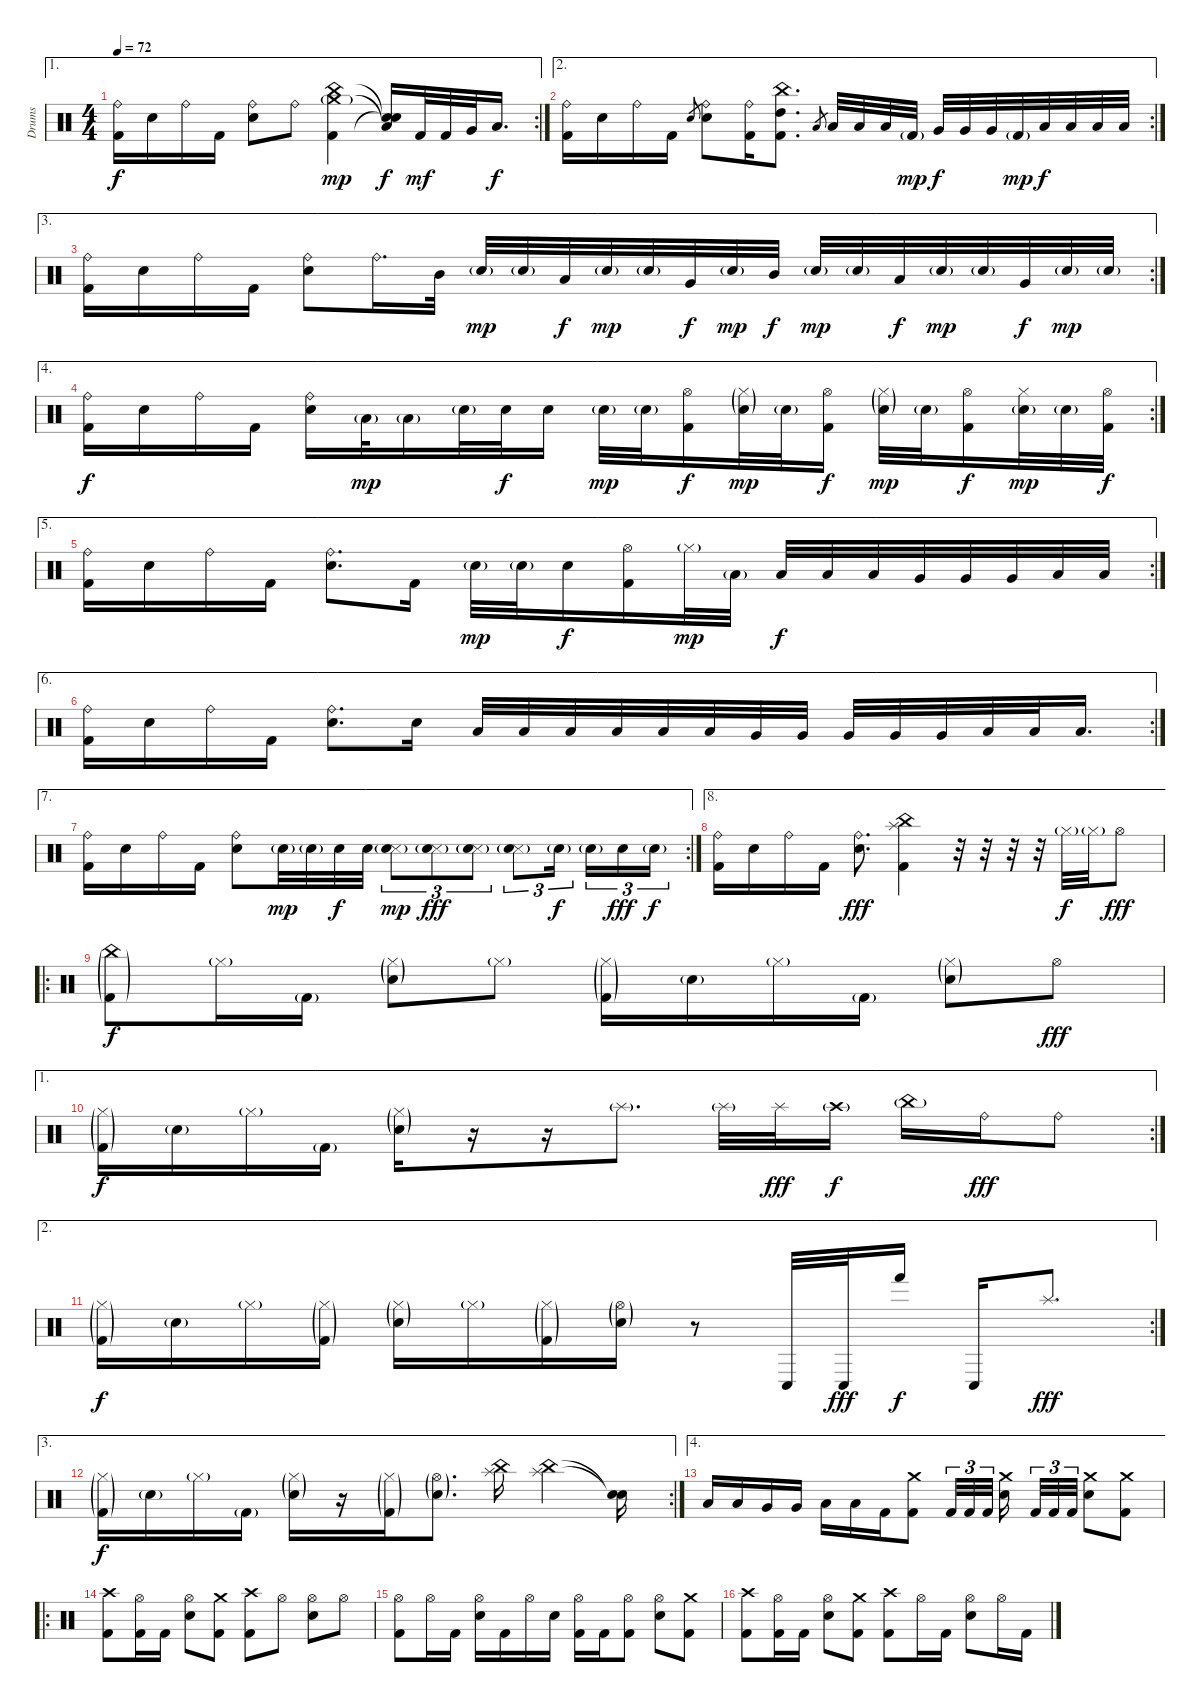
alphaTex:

\track ("Drums" "Drums") {instrument percussion}
\staff {score}
\articulation defaults
\ae 1
\rc 2
\ts (4 4)
\tempo 72
\clef neutral
\ks c
("Ride (bell)" "Kick (hit) 2").16{dy f} "Electric Snare (hit)".16 "Ride (bell)".16 "Kick (hit) 2".16 ("Ride (bell)" "Electric Snare (hit)").8 "Ride (bell)".8 ("China (hit)" "Crash medium (hit)"{g} "Kick (hit) 2").4{dy mp} ("Snare (hit)"{t} "Low Floor Tom (hit)"{t} "Snare (hit)"{t}).16{dy f} "Kick (hit) 2".32{dy mf} "Kick (hit) 2".32 "Very Low Tom (hit)".32 "Low Floor Tom (hit)".16{d dy f} |
\ae 2
\rc 2
("Ride (bell)" "Kick (hit) 2").16 "Electric Snare (hit)".16 "Ride (bell)".16 "Kick (hit) 2".16 "Electric Snare (hit)".8{gr} ("Ride (bell)" "Electric Snare (hit)").8 ("Ride (bell)" "Kick (hit) 2").16 ("China (hit)" "High Tom (hit)" "Kick (hit) 2").8{d} "Low Tom (hit)".8{gr} "Low Tom (hit)".32 "Low Tom (hit)".32 "Low Tom (hit)".32 "Kick (hit) 2"{g}.32{dy mp} "Very Low Tom (hit)".32{dy f} "Very Low Tom (hit)".32 "Very Low Tom (hit)".32 "Kick (hit) 2"{g}.32{dy mp} "Low Floor Tom (hit)".32{dy f} "Low Floor Tom (hit)".32 "Low Floor Tom (hit)".32 "Low Floor Tom (hit)".32 |
\ae 3
\rc 2
("Ride (bell)" "Kick (hit) 2").16 "Electric Snare (hit)".16 "Ride (bell)".16 "Kick (hit) 2".16 ("Ride (bell)" "Electric Snare (hit)").8 "Ride (bell)".16{d} "Mid Tom (hit)".32 "Electric Snare (hit)"{g}.32{dy mp} "Electric Snare (hit)"{g}.32 "Low Tom (hit)".32{dy f} "Electric Snare (hit)"{g}.32{dy mp} "Electric Snare (hit)"{g}.32 "Very Low Tom (hit)".32{dy f} "Electric Snare (hit)"{g}.32{dy mp} "Mid Tom (hit)".32{dy f} "Electric Snare (hit)"{g}.32{dy mp} "Electric Snare (hit)"{g}.32 "Low Tom (hit)".32{dy f} "Electric Snare (hit)"{g}.32{dy mp} "Electric Snare (hit)"{g}.32 "Very Low Tom (hit)".32{dy f} "Electric Snare (hit)"{g}.32{dy mp} "Electric Snare (hit)"{g}.32 |
\ae 4
\rc 2
("Ride (bell)" "Kick (hit) 2").16{dy f} "Electric Snare (hit)".16 "Ride (bell)".16 "Kick (hit) 2".16 ("Ride (bell)" "Electric Snare (hit)").16 "Low Tom (hit)"{g}.32{dy mp} "Low Tom (hit)"{g}.16 "Electric Snare (hit)"{g}.32 "Electric Snare (hit)".32{dy f} "Electric Snare (hit)".16 "Electric Snare (hit)"{g}.32{dy mp} "Electric Snare (hit)"{g}.32 ("Hi-Hat (open)" "Kick (hit) 2").16{dy f} ("Hi-Hat (closed)"{g} "Electric Snare (hit)"{g}).32{dy mp} "Electric Snare (hit)"{g}.32 ("Hi-Hat (open)" "Kick (hit) 2").16{dy f} ("Hi-Hat (closed)"{g} "Electric Snare (hit)"{g}).32{dy mp} "Electric Snare (hit)"{g}.32 ("Hi-Hat (open)" "Kick (hit) 2").16{dy f} ("Hi-Hat (closed)" "Electric Snare (hit)"{g}).32{dy mp} "Electric Snare (hit)"{g}.32 ("Hi-Hat (open)" "Kick (hit) 2").32{dy f} |
\ae 5
\rc 2
("Ride (bell)" "Kick (hit) 2").16 "Electric Snare (hit)".16 "Ride (bell)".16 "Kick (hit) 2".16 ("Ride (bell)" "Electric Snare (hit)").8{d} "Kick (hit) 2".16 "Electric Snare (hit)"{g}.32{dy mp} "Electric Snare (hit)"{g}.32 "Electric Snare (hit)".16{dy f} ("Hi-Hat (open)" "Kick (hit) 2").16 "Hi-Hat (closed)"{g}.32{dy mp} "Low Tom (hit)"{g}.32 "Low Tom (hit)".32{dy f} "Low Tom (hit)".32 "Low Tom (hit)".32 "Very Low Tom (hit)".32 "Very Low Tom (hit)".32 "Very Low Tom (hit)".32 "Low Floor Tom (hit)".32 "Low Floor Tom (hit)".32 |
\ae 6
\rc 2
("Ride (bell)" "Kick (hit) 2").16 "Electric Snare (hit)".16 "Ride (bell)".16 "Kick (hit) 2".16 ("Ride (bell)" "Electric Snare (hit)").8{d} "Electric Snare (hit)".16 "Low Tom (hit)".32 "Low Tom (hit)".32 "Low Tom (hit)".32 "Low Tom (hit)".32 "Low Tom (hit)".32 "Low Tom (hit)".32 "Very Low Tom (hit)".32 "Very Low Tom (hit)".32 "Very Low Tom (hit)".32 "Very Low Tom (hit)".32 "Very Low Tom (hit)".32 "Low Floor Tom (hit)".32 "Low Floor Tom (hit)".32 "Low Floor Tom (hit)".16{d} |
\ae 7
\rc 2
("Ride (bell)" "Kick (hit) 2").16 "Electric Snare (hit)".16 "Ride (bell)".16 "Kick (hit) 2".16 ("Ride (bell)" "Electric Snare (hit)").8 "Electric Snare (hit)"{g}.32{dy mp} "Electric Snare (hit)"{g}.32 "Electric Snare (hit)".32{dy f} "Electric Snare (hit)".32 ("Snare (side stick) 3" "Electric Snare (hit)"{g}).8{tu (3 2) dy mp} ("Snare (side stick) 3" "Electric Snare (hit)"{g}).8{tu (3 2) dy fff} ("Snare (side stick) 3" "Electric Snare (hit)"{g}).8{tu (3 2)} ("Snare (side stick) 3" "Electric Snare (hit)"{g}).8{tu (3 2)} "Electric Snare (hit)"{g}.16{tu (3 2) dy f beam splitsecondary} "Electric Snare (hit)"{g}.16{tu (3 2)} "Electric Snare (hit)".16{tu (3 2) dy fff} "Electric Snare (hit)"{g}.16{tu (3 2) dy f} |
\ae 8
("Ride (bell)" "Kick (hit) 2").16 "Electric Snare (hit)".16 "Ride (bell)".16 "Kick (hit) 2".16 ("Ride (bell)" "Electric Snare (hit)").8{d dy fff} ("China (hit)" "Splash (hit)" "Kick (hit) 2").4 r.32 r.32 r.32 r.32 "Hi-Hat (closed)"{g}.32{dy f} "Hi-Hat (closed)"{g}.32 "Hi-Hat (open)".8{dy fff} |
\ro
("China (hit)"{g} "Kick (hit) 2"{g}).8{dy f} "Hi-Hat (closed)"{g}.16 "Kick (hit) 2"{g}.16 ("Hi-Hat (closed)"{g} "Electric Snare (hit)"{g}).8 "Hi-Hat (closed)"{g}.8 ("Hi-Hat (closed)"{g} "Kick (hit) 2"{g}).16 "Electric Snare (hit)"{g}.16 "Hi-Hat (closed)"{g}.16 "Kick (hit) 2"{g}.16 ("Hi-Hat (closed)"{g} "Electric Snare (hit)"{g}).8 "Hi-Hat (open)".8{dy fff} |
\ae 1
\rc 2
("Hi-Hat (closed)"{g} "Kick (hit) 2"{g}).16{dy f} "Electric Snare (hit)"{g}.16 "Hi-Hat (closed)"{g}.16 "Kick (hit) 2"{g}.16 ("Hi-Hat (closed)"{g} "Electric Snare (hit)"{g}).16 r.16 r.16 "Splash (hit)"{g}.8{d} "Splash (hit)"{g}.32 "Splash (hit)".32{dy fff} "Crash high (hit)"{g}.16{dy f} "China (hit)"{g}.16 "Ride (bell)".16{dy fff} "Ride (bell)".8 |
\ae 2
\rc 2
("Hi-Hat (closed)"{g} "Kick (hit) 2"{g}).16{dy f} "Electric Snare (hit)"{g}.16 "Hi-Hat (closed)"{g}.16 ("Hi-Hat (closed)"{g} "Kick (hit) 2"{g}).16 ("Hi-Hat (closed)"{g} "Electric Snare (hit)"{g}).16 "Hi-Hat (closed)"{g}.16 ("Hi-Hat (closed)"{g} "Kick (hit) 2"{g}).16 ("Hi-Hat (open)"{g} "Electric Snare (hit)"{g}).16 r.8 "Conga low (hit)".32 "Conga low (hit)".32{dy fff} "Hand (hit)".16{dy f} "Conga low (hit)".16 "Splash (hit)".8{d dy fff} |
\ae 3
\rc 2
("Hi-Hat (closed)"{g} "Kick (hit) 2"{g}).16{dy f} "Electric Snare (hit)"{g}.16 "Hi-Hat (closed)"{g}.16 "Kick (hit) 2"{g}.16 ("Hi-Hat (closed)"{g} "Electric Snare (hit)"{g}).16 r.16 ("Hi-Hat (closed)"{g} "Kick (hit) 2"{g}).16 ("Hi-Hat (open)"{g} "Electric Snare (hit)"{g}).8{d} ("Splash (hit)" "China (hit)").16 ("Splash (hit)" "China (hit)").4 ("Snare (hit)"{t} "Snare (hit)"{t}).16 |
\ae 4 "Low Tom (hit)".16 "Low Tom (hit)".16 "Very Low Tom (hit)".16 "Very Low Tom (hit)".16 "Low Floor Tom (hit)".16 "Low Floor Tom (hit)".16 "Kick (hit) 2".16
("Crash medium (hit)" "Kick (hit) 2").8 "Kick (hit) 2".32{tu (3 2)} "Kick (hit) 2".32{tu (3 2)} "Kick (hit) 2".32{tu (3 2) beam splitsecondary} ("Crash medium (hit)" "Electric Snare (hit)").16{beam splitsecondary} "Kick (hit) 2".32{tu (3 2)} "Kick (hit) 2".32{tu (3 2)} "Kick (hit) 2".32{tu (3 2)} ("Crash medium (hit)" "Electric Snare (hit)").8 ("Crash medium (hit)" "Kick (hit) 2").8 |
\ro
("Crash high (hit)" "Kick (hit) 2").8 ("Hi-Hat (open)" "Kick (hit) 2").16 "Kick (hit) 2".16 ("Hi-Hat (open)" "Electric Snare (hit)").8 ("Crash medium (hit)" "Kick (hit) 2").8 ("Crash high (hit)" "Kick (hit) 2").8 "Hi-Hat (open)".8 ("Hi-Hat (open)" "Electric Snare (hit)").8 "Hi-Hat (open)".8 |
("Hi-Hat (open)" "Kick (hit) 2").8 "Hi-Hat (open)".16 "Kick (hit) 2".16 ("Hi-Hat (open)" "Electric Snare (hit)").16 "Kick (hit) 2".16 "Hi-Hat (open)".16 "Electric Snare (hit)".16 ("Hi-Hat (open)" "Kick (hit) 2").16 "Kick (hit) 2".16 ("Hi-Hat (open)" "Kick (hit) 2").8 ("Hi-Hat (open)" "Electric Snare (hit)").8 ("Crash medium (hit)" "Kick (hit) 2").8 |
("Crash high (hit)" "Kick (hit) 2").8 ("Hi-Hat (open)" "Kick (hit) 2").16 "Kick (hit) 2".16 ("Hi-Hat (open)" "Electric Snare (hit)").8 ("Crash medium (hit)" "Kick (hit) 2").8 ("Crash high (hit)" "Kick (hit) 2").8 "Hi-Hat (open)".16 "Kick (hit) 2".16 ("Hi-Hat (open)" "Electric Snare (hit)").8 "Hi-Hat (open)".16 "Kick (hit) 2".16
